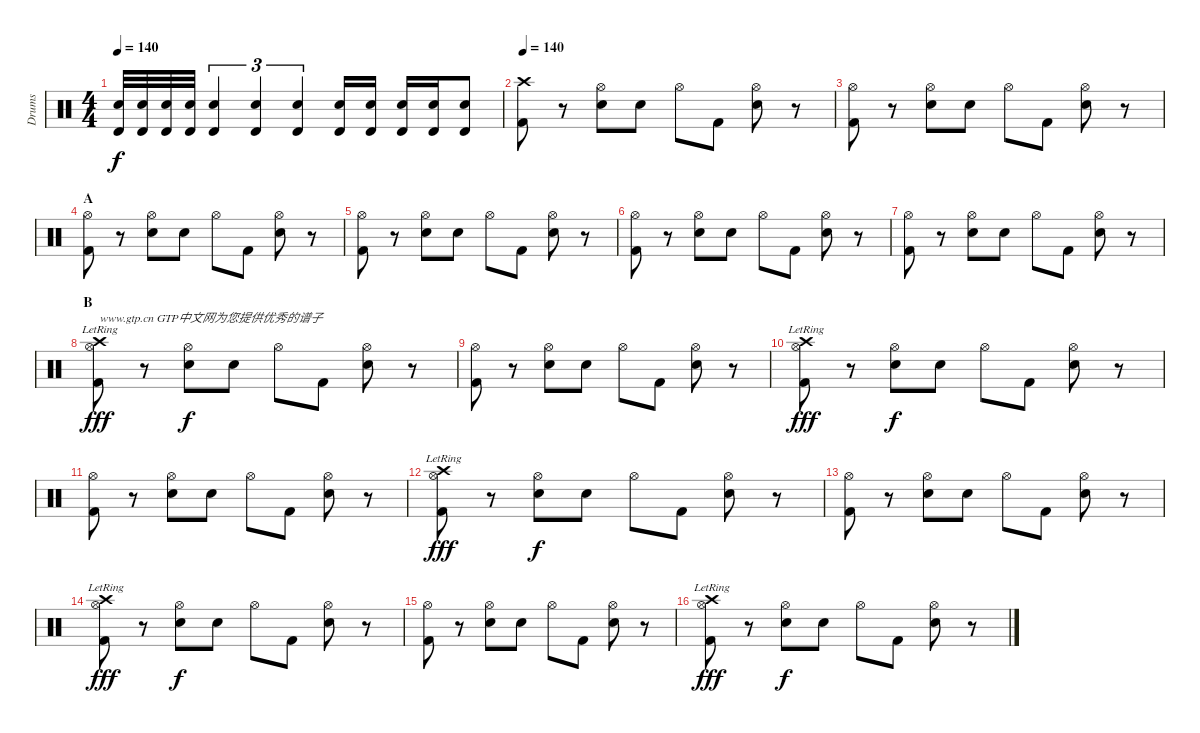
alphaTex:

\track ("Drums" "Drums") {instrument percussion}
\staff {score}
\articulation defaults
\ts (4 4)
\tempo 140
\tempo 100
\tempo 140
\clef neutral
\ks c
("Timbale high (hit)" "Electric Snare (hit)").32{dy f} ("Timbale high (hit)" "Electric Snare (hit)").32 ("Timbale high (hit)" "Electric Snare (hit)").32 ("Timbale high (hit)" "Electric Snare (hit)").32 ("Timbale high (hit)" "Electric Snare (hit)").4{tu (3 2)} ("Timbale high (hit)" "Electric Snare (hit)").4{tu (3 2)} ("Timbale high (hit)" "Electric Snare (hit)").4{tu (3 2)} ("Timbale high (hit)" "Electric Snare (hit)").16 ("Timbale high (hit)" "Electric Snare (hit)").16 ("Timbale high (hit)" "Electric Snare (hit)").16 ("Timbale high (hit)" "Electric Snare (hit)").16 ("Timbale high (hit)" "Electric Snare (hit)").8 |
\tempo 140
("Crash high (hit)" "Kick (hit) 2").8 r.8 ("Hi-Hat (open)" "Electric Snare (hit)").8 "Electric Snare (hit)".8 "Hi-Hat (open)".8 "Kick (hit) 2".8 ("Hi-Hat (open)" "Electric Snare (hit)").8 r.8 |
("Hi-Hat (open)" "Kick (hit) 2").8 r.8 ("Hi-Hat (open)" "Electric Snare (hit)").8 "Electric Snare (hit)".8 "Hi-Hat (open)".8 "Kick (hit) 2".8 ("Hi-Hat (open)" "Electric Snare (hit)").8 r.8 |
\section ("" "A")
("Hi-Hat (open)" "Kick (hit) 2").8 r.8 ("Hi-Hat (open)" "Electric Snare (hit)").8 "Electric Snare (hit)".8 "Hi-Hat (open)".8 "Kick (hit) 2".8 ("Hi-Hat (open)" "Electric Snare (hit)").8 r.8 |
("Hi-Hat (open)" "Kick (hit) 2").8 r.8 ("Hi-Hat (open)" "Electric Snare (hit)").8 "Electric Snare (hit)".8 "Hi-Hat (open)".8 "Kick (hit) 2".8 ("Hi-Hat (open)" "Electric Snare (hit)").8 r.8 |
("Hi-Hat (open)" "Kick (hit) 2").8 r.8 ("Hi-Hat (open)" "Electric Snare (hit)").8 "Electric Snare (hit)".8 "Hi-Hat (open)".8 "Kick (hit) 2".8 ("Hi-Hat (open)" "Electric Snare (hit)").8 r.8 |
("Hi-Hat (open)" "Kick (hit) 2").8 r.8 ("Hi-Hat (open)" "Electric Snare (hit)").8 "Electric Snare (hit)".8 "Hi-Hat (open)".8 "Kick (hit) 2".8 ("Hi-Hat (open)" "Electric Snare (hit)").8 r.8 |
\section ("" "B")
("Hi-Hat (open)" "Crash high (hit)"{lr} "Kick (hit) 2").8{txt "www.gtp.cn GTP中文网为您提供优秀的谱子" dy fff} r.8 ("Hi-Hat (open)" "Electric Snare (hit)").8{dy f} "Electric Snare (hit)".8 "Hi-Hat (open)".8 "Kick (hit) 2".8 ("Hi-Hat (open)" "Electric Snare (hit)").8 r.8 |
("Hi-Hat (open)" "Kick (hit) 2").8 r.8 ("Hi-Hat (open)" "Electric Snare (hit)").8 "Electric Snare (hit)".8 "Hi-Hat (open)".8 "Kick (hit) 2".8 ("Hi-Hat (open)" "Electric Snare (hit)").8 r.8 |
("Hi-Hat (open)" "Crash high (hit)"{lr} "Kick (hit) 2").8{dy fff} r.8 ("Hi-Hat (open)" "Electric Snare (hit)").8{dy f} "Electric Snare (hit)".8 "Hi-Hat (open)".8 "Kick (hit) 2".8 ("Hi-Hat (open)" "Electric Snare (hit)").8 r.8 |
("Hi-Hat (open)" "Kick (hit) 2").8 r.8 ("Hi-Hat (open)" "Electric Snare (hit)").8 "Electric Snare (hit)".8 "Hi-Hat (open)".8 "Kick (hit) 2".8 ("Hi-Hat (open)" "Electric Snare (hit)").8 r.8 |
("Hi-Hat (open)" "Crash high (hit)"{lr} "Kick (hit) 2").8{dy fff} r.8 ("Hi-Hat (open)" "Electric Snare (hit)").8{dy f} "Electric Snare (hit)".8 "Hi-Hat (open)".8 "Kick (hit) 2".8 ("Hi-Hat (open)" "Electric Snare (hit)").8 r.8 |
("Hi-Hat (open)" "Kick (hit) 2").8 r.8 ("Hi-Hat (open)" "Electric Snare (hit)").8 "Electric Snare (hit)".8 "Hi-Hat (open)".8 "Kick (hit) 2".8 ("Hi-Hat (open)" "Electric Snare (hit)").8 r.8 |
("Hi-Hat (open)" "Crash high (hit)"{lr} "Kick (hit) 2").8{dy fff} r.8 ("Hi-Hat (open)" "Electric Snare (hit)").8{dy f} "Electric Snare (hit)".8 "Hi-Hat (open)".8 "Kick (hit) 2".8 ("Hi-Hat (open)" "Electric Snare (hit)").8 r.8 |
("Hi-Hat (open)" "Kick (hit) 2").8 r.8 ("Hi-Hat (open)" "Electric Snare (hit)").8 "Electric Snare (hit)".8 "Hi-Hat (open)".8 "Kick (hit) 2".8 ("Hi-Hat (open)" "Electric Snare (hit)").8 r.8 |
("Hi-Hat (open)" "Crash high (hit)"{lr} "Kick (hit) 2").8{dy fff} r.8 ("Hi-Hat (open)" "Electric Snare (hit)").8{dy f} "Electric Snare (hit)".8 "Hi-Hat (open)".8 "Kick (hit) 2".8 ("Hi-Hat (open)" "Electric Snare (hit)").8 r.8
